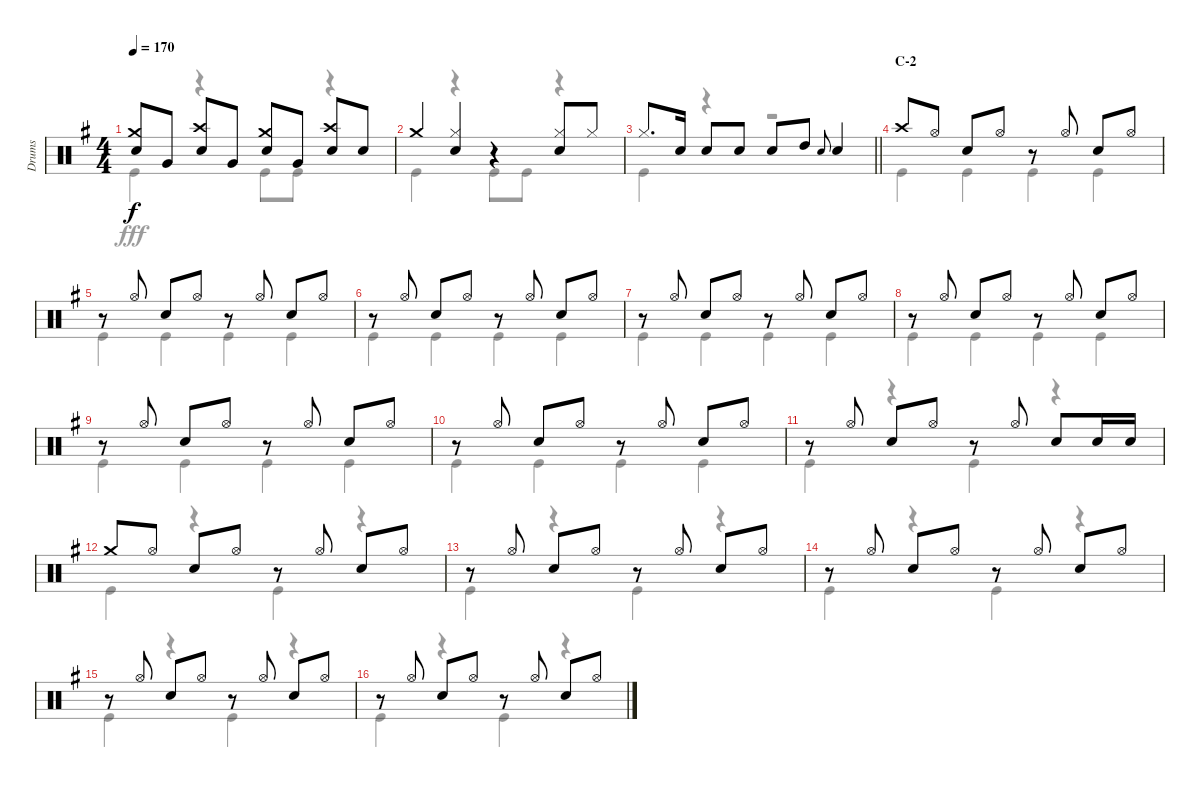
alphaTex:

\track ("Drums" "Drums") {instrument percussion}
\staff {score}
\articulation defaults
\voice
\ts (4 4)
\tempo 170
\clef neutral
\ks g
("Crash medium (hit)" "Snare (hit) 2").8{dy f} "Very Low Tom (hit)".8 ("Crash high (hit)" "Snare (hit) 2").8 "Very Low Tom (hit)".8 ("Crash medium (hit)" "Snare (hit) 2").8 "Very Low Tom (hit)".8 ("Crash high (hit)" "Snare (hit) 2").8 "Snare (hit) 2".8 |
"Crash medium (hit)".4 ("Hi-Hat (closed)" "Snare (hit) 2").4 r.4 ("Hi-Hat (closed)" "Snare (hit) 2").8 "Hi-Hat (closed)".8 |
\barLineRight lightlight "Hi-Hat (closed)".8{d} "Snare (hit) 2".16 "Snare (hit) 2".8 "Snare (hit) 2".8 "Snare (hit) 2".8 "High Tom (hit)".8 "Snare (hit) 2".8{gr onbeat} "Snare (hit) 2".4
|
\section ("" "C-2")
"Crash high (hit)".8 "Hi-Hat (open)".8 "Snare (hit) 2".8 "Hi-Hat (open)".8 r.8 "Hi-Hat (open)".8 "Snare (hit) 2".8 "Hi-Hat (open)".8 |
r.8 "Hi-Hat (open)".8 "Snare (hit) 2".8 "Hi-Hat (open)".8 r.8 "Hi-Hat (open)".8 "Snare (hit) 2".8 "Hi-Hat (open)".8 |
r.8 "Hi-Hat (open)".8 "Snare (hit) 2".8 "Hi-Hat (open)".8 r.8 "Hi-Hat (open)".8 "Snare (hit) 2".8 "Hi-Hat (open)".8 |
r.8 "Hi-Hat (open)".8 "Snare (hit) 2".8 "Hi-Hat (open)".8 r.8 "Hi-Hat (open)".8 "Snare (hit) 2".8 "Hi-Hat (open)".8 |
r.8 "Hi-Hat (open)".8 "Snare (hit) 2".8 "Hi-Hat (open)".8 r.8 "Hi-Hat (open)".8 "Snare (hit) 2".8 "Hi-Hat (open)".8 |
r.8 "Hi-Hat (open)".8 "Snare (hit) 2".8 "Hi-Hat (open)".8 r.8 "Hi-Hat (open)".8 "Snare (hit) 2".8 "Hi-Hat (open)".8 |
r.8 "Hi-Hat (open)".8 "Snare (hit) 2".8 "Hi-Hat (open)".8 r.8 "Hi-Hat (open)".8 "Snare (hit) 2".8 "Hi-Hat (open)".8 |
r.8 "Hi-Hat (open)".8 "Snare (hit) 2".8 "Hi-Hat (open)".8 r.8 "Hi-Hat (open)".8 "Snare (hit) 2".8 "Snare (hit) 2".16 "Snare (hit) 2".16 |
"Crash medium (hit)".8 "Hi-Hat (open)".8 "Snare (hit) 2".8 "Hi-Hat (open)".8 r.8 "Hi-Hat (open)".8 "Snare (hit) 2".8 "Hi-Hat (open)".8 |
r.8 "Hi-Hat (open)".8 "Snare (hit) 2".8 "Hi-Hat (open)".8 r.8 "Hi-Hat (open)".8 "Snare (hit) 2".8 "Hi-Hat (open)".8 |
r.8 "Hi-Hat (open)".8 "Snare (hit) 2".8 "Hi-Hat (open)".8 r.8 "Hi-Hat (open)".8 "Snare (hit) 2".8 "Hi-Hat (open)".8 |
r.8 "Hi-Hat (open)".8 "Snare (hit) 2".8 "Hi-Hat (open)".8 r.8 "Hi-Hat (open)".8 "Snare (hit) 2".8 "Hi-Hat (open)".8 |
r.8 "Hi-Hat (open)".8 "Snare (hit) 2".8 "Hi-Hat (open)".8 r.8 "Hi-Hat (open)".8 "Snare (hit) 2".8 "Hi-Hat (open)".8
\voice
\clef neutral
\ottava regular
\simile none
\ks g "Kick (hit)".4{dy fff}
r.4 "Kick (hit)".8 "Kick (hit)".8 r.4 |
"Kick (hit)".4 r.4 "Kick (hit)".8 "Kick (hit)".8 r.4 |
\barLineRight lightlight "Kick (hit)".4
r.4 r.2 |
"Kick (hit)".4 "Kick (hit)".4 "Kick (hit)".4 "Kick (hit)".4 |
"Kick (hit)".4 "Kick (hit)".4 "Kick (hit)".4 "Kick (hit)".4 |
"Kick (hit)".4 "Kick (hit)".4 "Kick (hit)".4 "Kick (hit)".4 |
"Kick (hit)".4 "Kick (hit)".4 "Kick (hit)".4 "Kick (hit)".4 |
"Kick (hit)".4 "Kick (hit)".4 "Kick (hit)".4 "Kick (hit)".4 |
"Kick (hit)".4 "Kick (hit)".4 "Kick (hit)".4 "Kick (hit)".4 |
"Kick (hit)".4 "Kick (hit)".4 "Kick (hit)".4 "Kick (hit)".4 |
"Kick (hit)".4 r.4 "Kick (hit)".4 r.4 |
"Kick (hit)".4 r.4 "Kick (hit)".4 r.4 |
"Kick (hit)".4 r.4 "Kick (hit)".4 r.4 |
"Kick (hit)".4 r.4 "Kick (hit)".4 r.4 |
"Kick (hit)".4 r.4 "Kick (hit)".4 r.4 |
"Kick (hit)".4 r.4 "Kick (hit)".4 r.4
